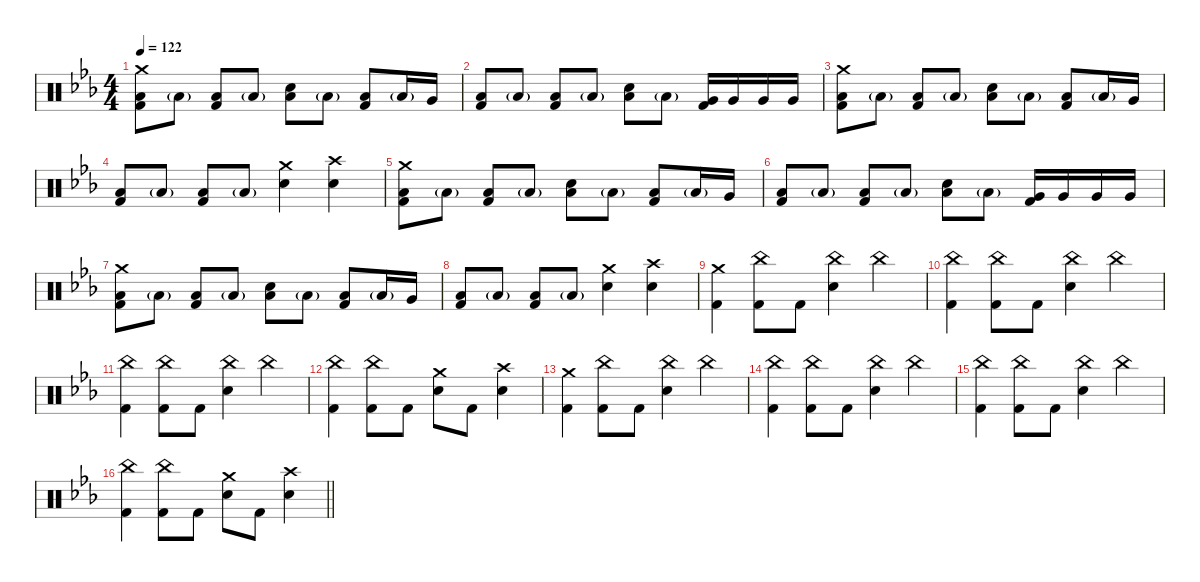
\defaultSystemsLayout 4
\hideDynamics
\bracketExtendMode nobrackets
\singleTrackTrackNamePolicy hidden
\multiTrackTrackNamePolicy hidden
\firstSystemTrackNameMode fullname
\otherSystemsTrackNameOrientation horizontal
\track ("Drums" "drm.") {instrument percussion}
\staff {score}
\articulation defaults
\ts (4 4)
\tempo 122
\clef neutral
\ks cminor
("Crash medium (hit)"{acc forcenatural} "Low Floor Tom (hit)"{acc forcenatural} "Kick (hit) 2"{acc forcenatural}).8{dy f beam Down} "Low Floor Tom (hit)"{g acc forcenatural}.8{dy mf beam Down} ("Low Floor Tom (hit)"{acc forcenatural} "Kick (hit) 2"{acc forcenatural}).8{dy f beam Up} "Low Floor Tom (hit)"{g acc forcenatural}.8{dy mf beam Up} ("Snare (hit) 2"{acc forcenatural} "Low Floor Tom (hit)"{acc forcenatural}).8{dy f beam Down} "Low Floor Tom (hit)"{g acc forcenatural}.8{dy mf beam Down} ("Low Floor Tom (hit)"{acc forcenatural} "Kick (hit) 2"{acc forcenatural}).8{dy f beam Up} "Low Floor Tom (hit)"{g acc forcenatural}.16{dy mf beam Up} "Very Low Tom (hit)"{acc forcenatural}.16{dy f beam Up} |
("Low Floor Tom (hit)"{acc forcenatural} "Kick (hit) 2"{acc forcenatural}).8{beam Up} "Low Floor Tom (hit)"{g acc forcenatural}.8{dy mf beam Up} ("Low Floor Tom (hit)"{acc forcenatural} "Kick (hit) 2"{acc forcenatural}).8{dy f beam Up} "Low Floor Tom (hit)"{g acc forcenatural}.8{dy mf beam Up} ("Snare (hit) 2"{acc forcenatural} "Low Floor Tom (hit)"{acc forcenatural}).8{dy f beam Down} "Low Floor Tom (hit)"{g acc forcenatural}.8{dy mf beam Down} ("Very Low Tom (hit)"{acc forcenatural} "Kick (hit) 2"{acc forcenatural}).16{dy f beam Up} "Very Low Tom (hit)"{acc forcenatural}.16{beam Up} "Very Low Tom (hit)"{acc forcenatural}.16{beam Up} "Very Low Tom (hit)"{acc forcenatural}.16{beam Up} |
("Crash medium (hit)"{acc forcenatural} "Low Floor Tom (hit)"{acc forcenatural} "Kick (hit) 2"{acc forcenatural}).8{beam Down} "Low Floor Tom (hit)"{g acc forcenatural}.8{dy mf beam Down} ("Low Floor Tom (hit)"{acc forcenatural} "Kick (hit) 2"{acc forcenatural}).8{dy f beam Up} "Low Floor Tom (hit)"{g acc forcenatural}.8{dy mf beam Up} ("Snare (hit) 2"{acc forcenatural} "Low Floor Tom (hit)"{acc forcenatural}).8{dy f beam Down} "Low Floor Tom (hit)"{g acc forcenatural}.8{dy mf beam Down} ("Low Floor Tom (hit)"{acc forcenatural} "Kick (hit) 2"{acc forcenatural}).8{dy f beam Up} "Low Floor Tom (hit)"{g acc forcenatural}.16{dy mf beam Up} "Very Low Tom (hit)"{acc forcenatural}.16{dy f beam Up} |
("Low Floor Tom (hit)"{acc forcenatural} "Kick (hit) 2"{acc forcenatural}).8{beam Up} "Low Floor Tom (hit)"{g acc forcenatural}.8{dy mf beam Up} ("Low Floor Tom (hit)"{acc forcenatural} "Kick (hit) 2"{acc forcenatural}).8{dy f beam Up} "Low Floor Tom (hit)"{g acc forcenatural}.8{dy mf beam Up} ("Crash medium (hit)"{acc forcenatural} "Snare (hit) 2"{acc forcenatural}).4{dy f beam Down} ("Crash high (hit)"{acc forcenatural} "Snare (hit) 2"{acc forcenatural}).4{beam Down} |
("Crash medium (hit)"{acc forcenatural} "Low Floor Tom (hit)"{acc forcenatural} "Kick (hit) 2"{acc forcenatural}).8{beam Down} "Low Floor Tom (hit)"{g acc forcenatural}.8{dy mf beam Down} ("Low Floor Tom (hit)"{acc forcenatural} "Kick (hit) 2"{acc forcenatural}).8{dy f beam Up} "Low Floor Tom (hit)"{g acc forcenatural}.8{dy mf beam Up} ("Snare (hit) 2"{acc forcenatural} "Low Floor Tom (hit)"{acc forcenatural}).8{dy f beam Down} "Low Floor Tom (hit)"{g acc forcenatural}.8{dy mf beam Down} ("Low Floor Tom (hit)"{acc forcenatural} "Kick (hit) 2"{acc forcenatural}).8{dy f beam Up} "Low Floor Tom (hit)"{g acc forcenatural}.16{dy mf beam Up} "Very Low Tom (hit)"{acc forcenatural}.16{dy f beam Up} |
("Low Floor Tom (hit)"{acc forcenatural} "Kick (hit) 2"{acc forcenatural}).8{beam Up} "Low Floor Tom (hit)"{g acc forcenatural}.8{dy mf beam Up} ("Low Floor Tom (hit)"{acc forcenatural} "Kick (hit) 2"{acc forcenatural}).8{dy f beam Up} "Low Floor Tom (hit)"{g acc forcenatural}.8{dy mf beam Up} ("Snare (hit) 2"{acc forcenatural} "Low Floor Tom (hit)"{acc forcenatural}).8{dy f beam Down} "Low Floor Tom (hit)"{g acc forcenatural}.8{dy mf beam Down} ("Very Low Tom (hit)"{acc forcenatural} "Kick (hit) 2"{acc forcenatural}).16{dy f beam Up} "Very Low Tom (hit)"{acc forcenatural}.16{beam Up} "Very Low Tom (hit)"{acc forcenatural}.16{beam Up} "Very Low Tom (hit)"{acc forcenatural}.16{beam Up} |
("Crash medium (hit)"{acc forcenatural} "Low Floor Tom (hit)"{acc forcenatural} "Kick (hit) 2"{acc forcenatural}).8{beam Down} "Low Floor Tom (hit)"{g acc forcenatural}.8{dy mf beam Down} ("Low Floor Tom (hit)"{acc forcenatural} "Kick (hit) 2"{acc forcenatural}).8{dy f beam Up} "Low Floor Tom (hit)"{g acc forcenatural}.8{dy mf beam Up} ("Snare (hit) 2"{acc forcenatural} "Low Floor Tom (hit)"{acc forcenatural}).8{dy f beam Down} "Low Floor Tom (hit)"{g acc forcenatural}.8{dy mf beam Down} ("Low Floor Tom (hit)"{acc forcenatural} "Kick (hit) 2"{acc forcenatural}).8{dy f beam Up} "Low Floor Tom (hit)"{g acc forcenatural}.16{dy mf beam Up} "Very Low Tom (hit)"{acc forcenatural}.16{dy f beam Up} |
("Low Floor Tom (hit)"{acc forcenatural} "Kick (hit) 2"{acc forcenatural}).8{beam Up} "Low Floor Tom (hit)"{g acc forcenatural}.8{dy mf beam Up} ("Low Floor Tom (hit)"{acc forcenatural} "Kick (hit) 2"{acc forcenatural}).8{dy f beam Up} "Low Floor Tom (hit)"{g acc forcenatural}.8{dy mf beam Up} ("Crash medium (hit)"{acc forcenatural} "Snare (hit) 2"{acc forcenatural}).4{dy f beam Down} ("Crash high (hit)"{acc forcenatural} "Snare (hit) 2"{acc forcenatural}).4{beam Down} |
("Crash medium (hit)"{acc forcenatural} "Kick (hit) 2"{acc forcenatural}).4{beam Down} ("China (hit)"{acc forcenatural} "Kick (hit) 2"{acc forcenatural}).8{dy mp beam Down} "Kick (hit) 2"{acc forcenatural}.8{dy f beam Down} ("China (hit)"{acc forcenatural} "Snare (hit) 2"{acc forcenatural}).4{dy mp beam Down} "China (hit)"{acc forcenatural}.4{beam Down} |
("China (hit)"{acc forcenatural} "Kick (hit) 2"{acc forcenatural}).4{beam Down} ("China (hit)"{acc forcenatural} "Kick (hit) 2"{acc forcenatural}).8{beam Down} "Kick (hit) 2"{acc forcenatural}.8{dy f beam Down} ("China (hit)"{acc forcenatural} "Snare (hit) 2"{acc forcenatural}).4{dy mp beam Down} "China (hit)"{acc forcenatural}.4{beam Down} |
("China (hit)"{acc forcenatural} "Kick (hit) 2"{acc forcenatural}).4{beam Down} ("China (hit)"{acc forcenatural} "Kick (hit) 2"{acc forcenatural}).8{beam Down} "Kick (hit) 2"{acc forcenatural}.8{dy f beam Down} ("China (hit)"{acc forcenatural} "Snare (hit) 2"{acc forcenatural}).4{dy mp beam Down} "China (hit)"{acc forcenatural}.4{beam Down} |
("China (hit)"{acc forcenatural} "Kick (hit) 2"{acc forcenatural}).4{beam Down} ("China (hit)"{acc forcenatural} "Kick (hit) 2"{acc forcenatural}).8{beam Down} "Kick (hit) 2"{acc forcenatural}.8{dy f beam Down} ("Crash medium (hit)"{acc forcenatural} "Snare (hit) 2"{acc forcenatural}).8{beam Down} "Kick (hit) 2"{acc forcenatural}.8{beam Down} ("Crash high (hit)"{acc forcenatural} "Snare (hit) 2"{acc forcenatural}).4{beam Down} |
("Crash medium (hit)"{acc forcenatural} "Kick (hit) 2"{acc forcenatural}).4{beam Down} ("China (hit)"{acc forcenatural} "Kick (hit) 2"{acc forcenatural}).8{dy mp beam Down} "Kick (hit) 2"{acc forcenatural}.8{dy f beam Down} ("China (hit)"{acc forcenatural} "Snare (hit) 2"{acc forcenatural}).4{dy mp beam Down} "China (hit)"{acc forcenatural}.4{beam Down} |
("China (hit)"{acc forcenatural} "Kick (hit) 2"{acc forcenatural}).4{beam Down} ("China (hit)"{acc forcenatural} "Kick (hit) 2"{acc forcenatural}).8{beam Down} "Kick (hit) 2"{acc forcenatural}.8{dy f beam Down} ("China (hit)"{acc forcenatural} "Snare (hit) 2"{acc forcenatural}).4{dy mp beam Down} "China (hit)"{acc forcenatural}.4{beam Down} |
("China (hit)"{acc forcenatural} "Kick (hit) 2"{acc forcenatural}).4{beam Down} ("China (hit)"{acc forcenatural} "Kick (hit) 2"{acc forcenatural}).8{beam Down} "Kick (hit) 2"{acc forcenatural}.8{dy f beam Down} ("China (hit)"{acc forcenatural} "Snare (hit) 2"{acc forcenatural}).4{dy mp beam Down} "China (hit)"{acc forcenatural}.4{beam Down} |
\barLineRight lightlight
("China (hit)"{acc forcenatural} "Kick (hit) 2"{acc forcenatural}).4{beam Down} ("China (hit)"{acc forcenatural} "Kick (hit) 2"{acc forcenatural}).8{beam Down} "Kick (hit) 2"{acc forcenatural}.8{dy f beam Down} ("Crash medium (hit)"{acc forcenatural} "Snare (hit) 2"{acc forcenatural}).8{beam Down} "Kick (hit) 2"{acc forcenatural}.8{beam Down} ("Crash high (hit)"{acc forcenatural} "Snare (hit) 2"{acc forcenatural}).4{beam Down}
